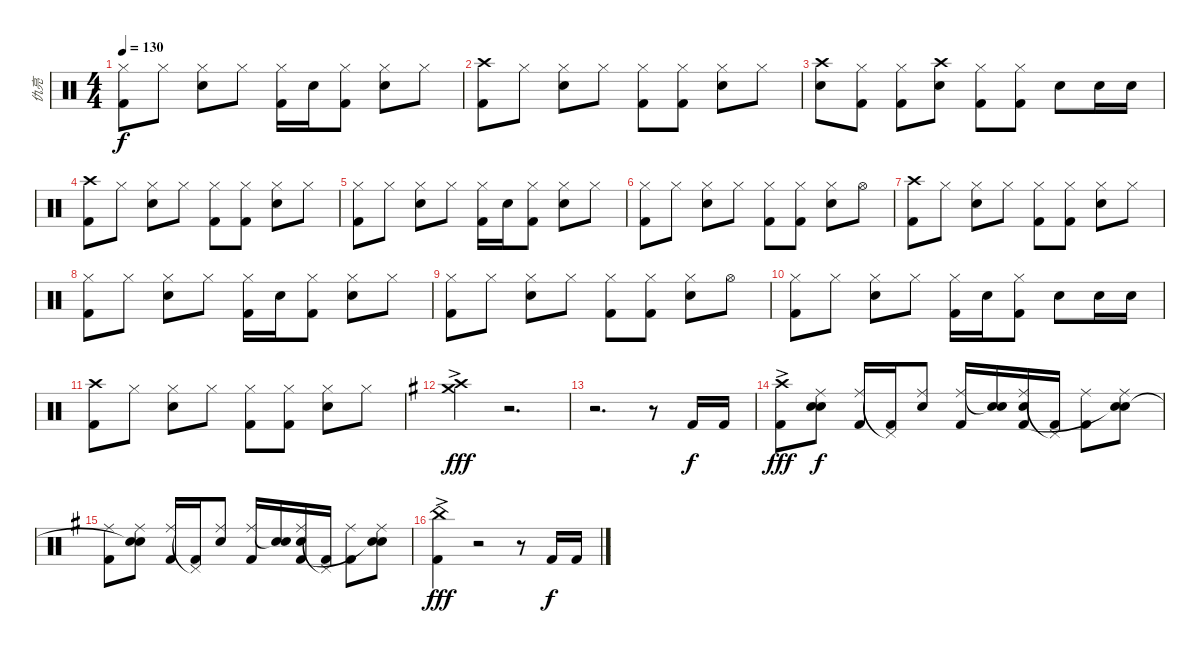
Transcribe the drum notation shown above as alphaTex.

\track ("仇亮" "仇亮") {instrument percussion}
\staff {score}
\articulation defaults
\ts (4 4)
\tempo 130
\clef neutral
\ks c
("Hi-Hat (closed)" "Kick (hit) 2").8{dy f} "Hi-Hat (closed)".8 ("Hi-Hat (closed)" "Electric Snare (hit)").8 "Hi-Hat (closed)".8 ("Hi-Hat (closed)" "Kick (hit) 2").16 "Electric Snare (hit)".16 ("Hi-Hat (closed)" "Kick (hit) 2").8 ("Hi-Hat (closed)" "Electric Snare (hit)").8 "Hi-Hat (closed)".8 |
("Crash high (hit)" "Kick (hit) 2").8 "Hi-Hat (closed)".8 ("Hi-Hat (closed)" "Electric Snare (hit)").8 "Hi-Hat (closed)".8 ("Hi-Hat (closed)" "Kick (hit) 2").8 ("Hi-Hat (closed)" "Kick (hit) 2").8 ("Hi-Hat (closed)" "Electric Snare (hit)").8 "Hi-Hat (closed)".8 |
("Crash high (hit)" "Electric Snare (hit)").8 ("Hi-Hat (closed)" "Kick (hit) 2").8 ("Hi-Hat (closed)" "Kick (hit) 2").8 ("Crash high (hit)" "Electric Snare (hit)").8 ("Hi-Hat (closed)" "Kick (hit) 2").8 ("Hi-Hat (closed)" "Kick (hit) 2").8 "Electric Snare (hit)".8 "Electric Snare (hit)".16 "Electric Snare (hit)".16 |
("Crash high (hit)" "Kick (hit) 2").8 "Hi-Hat (closed)".8 ("Hi-Hat (closed)" "Electric Snare (hit)").8 "Hi-Hat (closed)".8 ("Hi-Hat (closed)" "Kick (hit) 2").8 ("Hi-Hat (closed)" "Kick (hit) 2").8 ("Hi-Hat (closed)" "Electric Snare (hit)").8 "Hi-Hat (closed)".8 |
("Hi-Hat (closed)" "Kick (hit) 2").8 "Hi-Hat (closed)".8 ("Hi-Hat (closed)" "Electric Snare (hit)").8 "Hi-Hat (closed)".8 ("Hi-Hat (closed)" "Kick (hit) 2").16 "Electric Snare (hit)".16 ("Hi-Hat (closed)" "Kick (hit) 2").8 ("Hi-Hat (closed)" "Electric Snare (hit)").8 "Hi-Hat (closed)".8 |
("Hi-Hat (closed)" "Kick (hit) 2").8 "Hi-Hat (closed)".8 ("Hi-Hat (closed)" "Electric Snare (hit)").8 "Hi-Hat (closed)".8 ("Hi-Hat (closed)" "Kick (hit) 2").8 ("Hi-Hat (closed)" "Kick (hit) 2").8 ("Hi-Hat (closed)" "Electric Snare (hit)").8 "Hi-Hat (open)".8 |
("Crash high (hit)" "Kick (hit) 2").8 "Hi-Hat (closed)".8 ("Hi-Hat (closed)" "Electric Snare (hit)").8 "Hi-Hat (closed)".8 ("Hi-Hat (closed)" "Kick (hit) 2").8 ("Hi-Hat (closed)" "Kick (hit) 2").8 ("Hi-Hat (closed)" "Electric Snare (hit)").8 "Hi-Hat (closed)".8 |
("Hi-Hat (closed)" "Kick (hit) 2").8 "Hi-Hat (closed)".8 ("Hi-Hat (closed)" "Electric Snare (hit)").8 "Hi-Hat (closed)".8 ("Hi-Hat (closed)" "Kick (hit) 2").16 "Electric Snare (hit)".16 ("Hi-Hat (closed)" "Kick (hit) 2").8 ("Hi-Hat (closed)" "Electric Snare (hit)").8 "Hi-Hat (closed)".8 |
("Hi-Hat (closed)" "Kick (hit) 2").8 "Hi-Hat (closed)".8 ("Hi-Hat (closed)" "Electric Snare (hit)").8 "Hi-Hat (closed)".8 ("Hi-Hat (closed)" "Kick (hit) 2").8 ("Hi-Hat (closed)" "Kick (hit) 2").8 ("Hi-Hat (closed)" "Electric Snare (hit)").8 "Hi-Hat (open)".8 |
("Hi-Hat (closed)" "Kick (hit) 2").8 "Hi-Hat (closed)".8 ("Hi-Hat (closed)" "Electric Snare (hit)").8 "Hi-Hat (closed)".8 ("Hi-Hat (closed)" "Kick (hit) 2").16 "Electric Snare (hit)".16 ("Hi-Hat (closed)" "Kick (hit) 2").8 "Electric Snare (hit)".8 "Electric Snare (hit)".16 "Electric Snare (hit)".16 |
("Crash high (hit)" "Kick (hit) 2").8 "Hi-Hat (closed)".8 ("Hi-Hat (closed)" "Electric Snare (hit)").8 "Hi-Hat (closed)".8 ("Hi-Hat (closed)" "Kick (hit) 2").8 ("Hi-Hat (closed)" "Kick (hit) 2").8 ("Hi-Hat (closed)" "Electric Snare (hit)").8 "Hi-Hat (closed)".8 |
\ks g
("Crash medium (hit)"{ac} "Crash high (hit)"{ac}).4{dy fff} r.2{d} |
r.2{d} r.8 "Kick (hit) 2".16{dy f} "Kick (hit) 2".16 |
("Crash high (hit)"{ac} "Kick (hit) 2"{ac}).8{dy fff} ("Ride (middle)" "Snare (hit) 2" "Snare (hit)").8{dy f} ("Ride (middle)" "Kick (hit) 2").16 ("Pedal Hi-Hat (hit)"{t} "Kick (hit) 2").16 ("Ride (middle)" "Snare (hit) 2").8 ("Ride (middle)" "Kick (hit) 2").16 ("Snare (hit)"{t} "Snare (hit)").16 ("Ride (middle)" "Snare (hit) 2" "Kick (hit) 2").16 ("Pedal Hi-Hat (hit)"{t} "Kick (hit) 2").16 ("Ride (middle)" "Kick (hit) 2").8 ("Ride (middle)" "Snare (hit) 2" "Snare (hit)"{t}).8 |
("Ride (middle)" "Kick (hit) 2").8 ("Ride (middle)" "Snare (hit) 2" "Snare (hit)"{t}).8 ("Ride (middle)" "Kick (hit) 2").16 ("Pedal Hi-Hat (hit)"{t} "Kick (hit) 2").16 ("Ride (middle)" "Snare (hit) 2").8 ("Ride (middle)" "Kick (hit) 2").16 ("Snare (hit)"{t} "Snare (hit)").16 ("Ride (middle)" "Snare (hit) 2" "Kick (hit) 2").16 ("Pedal Hi-Hat (hit)"{t} "Kick (hit) 2").16 ("Ride (middle)" "Kick (hit) 2").8 ("Ride (middle)" "Snare (hit) 2" "Snare (hit)"{t}).8 |
("China (hit)"{ac} "Kick (hit) 2"{ac}).4{dy fff} r.2 r.8 "Kick (hit) 2".16{dy f} "Kick (hit) 2".16
